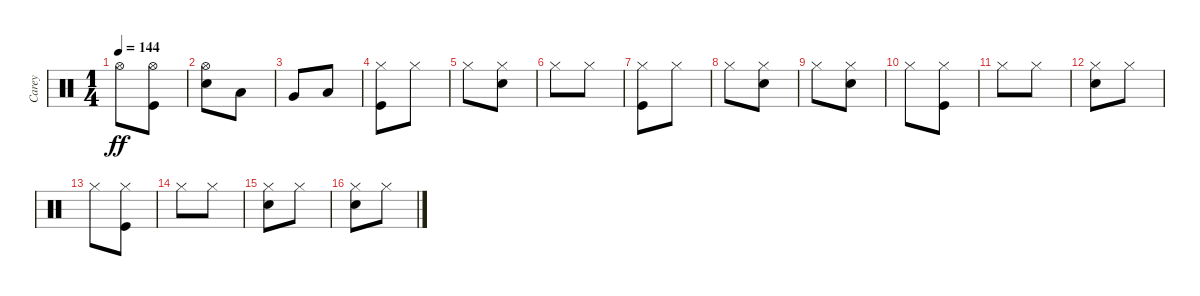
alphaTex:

\track ("Carey" "Carey") {instrument percussion}
\staff {score}
\articulation defaults
\ts (1 4)
\tempo 144
\clef neutral
\ks c "Hi-Hat (open)".8{dy ff}
("Kick (hit)" "Hi-Hat (open)").8 |
("Snare (hit) 2" "Hi-Hat (open)").8 "Low Tom (hit)".8 |
"Very Low Tom (hit)".8 "Low Floor Tom (hit)".8 |
("Kick (hit)" "Hi-Hat (closed)").8 "Hi-Hat (closed)".8 |
"Hi-Hat (closed)".8 ("Snare (hit) 2" "Hi-Hat (closed)").8 |
"Hi-Hat (closed)".8 "Hi-Hat (closed)".8 |
("Kick (hit)" "Hi-Hat (closed)").8 "Hi-Hat (closed)".8 |
"Hi-Hat (closed)".8 ("Snare (hit) 2" "Hi-Hat (closed)").8 |
"Hi-Hat (closed)".8 ("Snare (hit) 2" "Hi-Hat (closed)").8 |
"Hi-Hat (closed)".8 ("Kick (hit)" "Hi-Hat (closed)").8 |
"Hi-Hat (closed)".8 "Hi-Hat (closed)".8 |
("Snare (hit) 2" "Hi-Hat (closed)").8 "Hi-Hat (closed)".8 |
"Hi-Hat (closed)".8 ("Kick (hit)" "Hi-Hat (closed)").8 |
"Hi-Hat (closed)".8 "Hi-Hat (closed)".8 |
("Snare (hit) 2" "Hi-Hat (closed)").8 "Hi-Hat (closed)".8 |
("Snare (hit) 2" "Hi-Hat (closed)").8 "Hi-Hat (closed)".8
